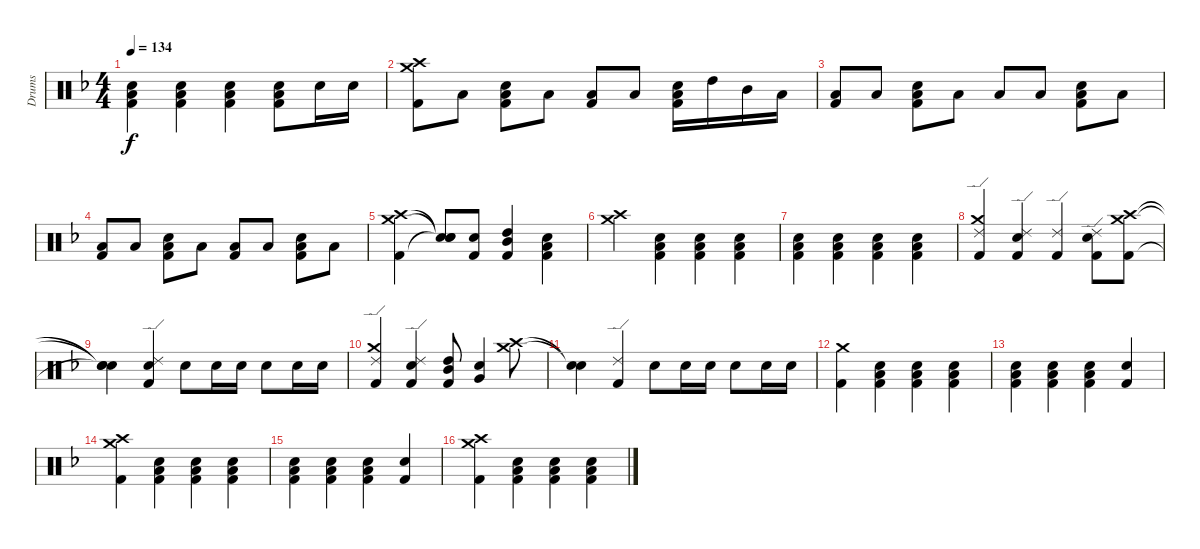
\track ("Drums" "Drums") {instrument percussion}
\staff {score}
\articulation defaults
\ts (4 4)
\tempo 134
\clef neutral
\ks f
("Low Tom (hit)" "Kick (hit) 2" "Snare (hit) 2").4{dy f} ("Low Tom (hit)" "Kick (hit) 2" "Snare (hit) 2").4 ("Low Tom (hit)" "Kick (hit) 2" "Snare (hit) 2").4 ("Low Tom (hit)" "Kick (hit) 2" "Snare (hit) 2").8 "Snare (hit) 2".16 "Snare (hit) 2".16 |
("Crash high (hit)" "Crash medium (hit)" "Kick (hit) 2").8 "Low Tom (hit)".8 ("Low Tom (hit)" "Snare (hit) 2" "Kick (hit) 2").8 "Low Tom (hit)".8 ("Low Tom (hit)" "Kick (hit) 2").8 "Low Tom (hit)".8 ("Low Tom (hit)" "Snare (hit) 2" "Kick (hit) 2").16 "High Tom (hit)".16 "Mid Tom (hit)".16 "Low Tom (hit)".16 |
("Low Tom (hit)" "Kick (hit) 2").8 "Low Tom (hit)".8 ("Low Tom (hit)" "Snare (hit) 2" "Kick (hit) 2").8 "Low Tom (hit)".8 "Low Tom (hit)".8 "Low Tom (hit)".8 ("Low Tom (hit)" "Snare (hit) 2" "Kick (hit) 2").8 "Low Tom (hit)".8 |
("Low Tom (hit)" "Kick (hit) 2").8 "Low Tom (hit)".8 ("Low Tom (hit)" "Kick (hit) 2" "Snare (hit) 2").8 "Low Tom (hit)".8 ("Low Tom (hit)" "Kick (hit) 2").8 "Low Tom (hit)".8 ("Low Tom (hit)" "Snare (hit) 2" "Kick (hit) 2").8 "Low Tom (hit)".8 |
("Kick (hit) 2" "Crash medium (hit)" "Crash high (hit)").4 ("Snare (hit)"{t} "Snare (hit)"{t} "Snare (hit)"{t}).8 ("Snare (hit) 2" "Kick (hit) 2").8 ("High Tom (hit)" "Kick (hit) 2" "Mid Tom (hit)").4 ("Snare (hit) 2" "Kick (hit) 2" "Low Tom (hit)").4 |
("Crash medium (hit)" "Crash high (hit)").4 ("Low Tom (hit)" "Kick (hit) 2" "Snare (hit) 2").4 ("Low Tom (hit)" "Kick (hit) 2" "Snare (hit) 2").4 ("Low Tom (hit)" "Kick (hit) 2" "Snare (hit) 2").4 |
("Low Tom (hit)" "Kick (hit) 2" "Snare (hit) 2").4 ("Low Tom (hit)" "Kick (hit) 2" "Snare (hit) 2").4 ("Low Tom (hit)" "Kick (hit) 2" "Snare (hit) 2").4 ("Low Tom (hit)" "Kick (hit) 2" "Snare (hit) 2").4 |
("Ride (edge) 2" "Crash medium (hit)" "Kick (hit) 2").4 ("Ride (edge) 2" "Snare (hit) 2" "Kick (hit) 2").4 ("Ride (edge) 2" "Kick (hit) 2").4 ("Ride (edge) 2" "Snare (hit) 2" "Kick (hit) 2").8 ("Crash high (hit)" "Crash medium (hit)" "Kick (hit) 2").8 |
("Snare (hit)"{t} "Snare (hit)"{t} "Snare (hit)"{t}).4 ("Ride (edge) 2" "Snare (hit) 2" "Kick (hit) 2").4 "Snare (hit) 2".8 "Snare (hit) 2".16 "Snare (hit) 2".16 "Snare (hit) 2".8 "Snare (hit) 2".16 "Snare (hit) 2".16 |
("Ride (edge) 2" "Kick (hit) 2" "Crash medium (hit)").4 ("Ride (edge) 2" "Kick (hit) 2" "Snare (hit) 2").4 ("High Tom (hit)" "Mid Tom (hit)" "Kick (hit) 2").8 ("Very Low Tom (hit)" "Snare (hit) 2").4 ("Crash high (hit)" "Crash medium (hit)").8 |
("Snare (hit)"{t} "Snare (hit)"{t}).4 ("Ride (edge) 2" "Kick (hit) 2").4 "Snare (hit) 2".8 "Snare (hit) 2".16 "Snare (hit) 2".16 "Snare (hit) 2".8 "Snare (hit) 2".16 "Snare (hit) 2".16 |
("Crash medium (hit)" "Kick (hit) 2").4 ("Low Tom (hit)" "Kick (hit) 2" "Snare (hit) 2").4 ("Low Tom (hit)" "Kick (hit) 2" "Snare (hit) 2").4 ("Low Tom (hit)" "Kick (hit) 2" "Snare (hit) 2").4 |
("Low Tom (hit)" "Kick (hit) 2" "Snare (hit) 2").4 ("Low Tom (hit)" "Kick (hit) 2" "Snare (hit) 2").4 ("Low Tom (hit)" "Kick (hit) 2" "Snare (hit) 2").4 ("Kick (hit) 2" "Snare (hit) 2").4 |
("Crash medium (hit)" "Kick (hit) 2" "Crash high (hit)").4 ("Low Tom (hit)" "Kick (hit) 2" "Snare (hit) 2").4 ("Low Tom (hit)" "Kick (hit) 2" "Snare (hit) 2").4 ("Low Tom (hit)" "Kick (hit) 2" "Snare (hit) 2").4 |
("Low Tom (hit)" "Kick (hit) 2" "Snare (hit) 2").4 ("Low Tom (hit)" "Kick (hit) 2" "Snare (hit) 2").4 ("Low Tom (hit)" "Kick (hit) 2" "Snare (hit) 2").4 ("Kick (hit) 2" "Snare (hit) 2").4 |
("Crash medium (hit)" "Kick (hit) 2" "Crash high (hit)").4 ("Low Tom (hit)" "Kick (hit) 2" "Snare (hit) 2").4 ("Low Tom (hit)" "Kick (hit) 2" "Snare (hit) 2").4 ("Low Tom (hit)" "Kick (hit) 2" "Snare (hit) 2").4
